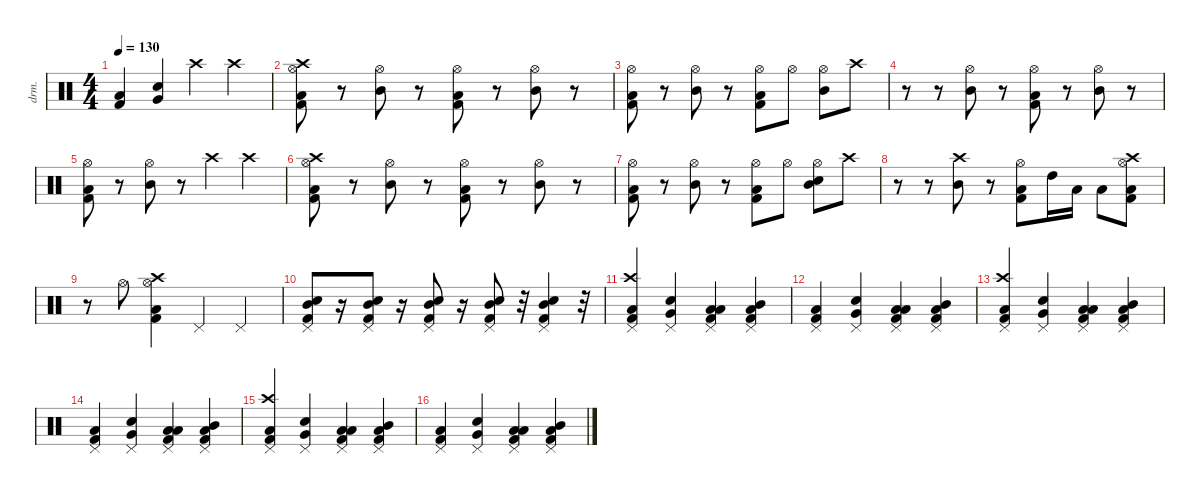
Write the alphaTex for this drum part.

\defaultSystemsLayout 4
\hideDynamics
\bracketExtendMode nobrackets
\otherSystemsTrackNameOrientation horizontal
\track ("Percussion" "drm.") {instrument percussion}
\staff {score}
\articulation defaults
\ts (4 4)
\tempo 130
\clef neutral
\ks c
("Kick (hit) 2" "Low Floor Tom (hit)").4{dy f} ("Very Low Tom (hit)" "Snare (hit) 2").4 "Crash high (hit)".4 "Crash high (hit)".4 |
("Hi-Hat (open)" "Kick (hit) 2" "Crash high (hit)" "Low Floor Tom (hit)").8 r.8 ("Hi-Hat (open)" "Mid Tom (hit)").8 r.8 ("Hi-Hat (open)" "Kick (hit) 2" "Low Floor Tom (hit)").8 r.8 ("Hi-Hat (open)" "Mid Tom (hit)").8 r.8 |
("Hi-Hat (open)" "Kick (hit) 2" "Low Floor Tom (hit)").8 r.8 ("Hi-Hat (open)" "Mid Tom (hit)").8 r.8 ("Hi-Hat (open)" "Kick (hit) 2" "Low Floor Tom (hit)").8 "Hi-Hat (open)".8 ("Hi-Hat (open)" "Mid Tom (hit)").8 "Crash high (hit)".8 |
r.8 r.8 ("Hi-Hat (open)" "Mid Tom (hit)").8 r.8 ("Hi-Hat (open)" "Kick (hit) 2" "Low Floor Tom (hit)").8 r.8 ("Hi-Hat (open)" "Mid Tom (hit)").8 r.8 |
("Hi-Hat (open)" "Kick (hit) 2" "Low Floor Tom (hit)").8 r.8 ("Hi-Hat (open)" "Mid Tom (hit)").8 r.8 "Crash high (hit)".4 "Crash high (hit)".4 |
("Hi-Hat (open)" "Kick (hit) 2" "Crash high (hit)" "Low Floor Tom (hit)").8 r.8 ("Hi-Hat (open)" "Mid Tom (hit)").8 r.8 ("Hi-Hat (open)" "Kick (hit) 2" "Low Floor Tom (hit)").8 r.8 ("Hi-Hat (open)" "Mid Tom (hit)").8 r.8 |
("Hi-Hat (open)" "Kick (hit) 2" "Low Floor Tom (hit)").8 r.8 ("Hi-Hat (open)" "Mid Tom (hit)").8 r.8 ("Hi-Hat (open)" "Kick (hit) 2" "Low Floor Tom (hit)").8 "Hi-Hat (open)".8 ("Hi-Hat (open)" "Mid Tom (hit)" "Snare (hit) 2").8 "Crash high (hit)".8 |
r.8 r.8 ("Crash high (hit)" "Mid Tom (hit)").8 r.8 ("Hi-Hat (open)" "Kick (hit) 2" "Low Floor Tom (hit)").8 "High Tom (hit)".16 "Low Tom (hit)".16 "Low Floor Tom (hit)".8 ("Hi-Hat (open)" "Kick (hit) 2" "Crash high (hit)" "Low Floor Tom (hit)").8 |
r.8 "Hi-Hat (open)".8 ("Hi-Hat (open)" "Kick (hit) 2" "Crash high (hit)" "Low Floor Tom (hit)").4 "Pedal Hi-Hat (hit)".4 "Pedal Hi-Hat (hit)".4 |
("Pedal Hi-Hat (hit)" "Mid Tom (hit)" "Kick (hit) 2" "Snare (hit) 2").8 r.16 ("Pedal Hi-Hat (hit)" "Mid Tom (hit)" "Kick (hit) 2" "Snare (hit) 2").8 r.16 ("Pedal Hi-Hat (hit)" "Mid Tom (hit)" "Kick (hit) 2" "Snare (hit) 2").8 r.16 ("Pedal Hi-Hat (hit)" "Mid Tom (hit)" "Kick (hit) 2" "Snare (hit) 2").8 r.32 ("Pedal Hi-Hat (hit)" "Mid Tom (hit)" "Kick (hit) 2" "Snare (hit) 2").4 r.32 |
("Pedal Hi-Hat (hit)" "Crash high (hit)" "Kick (hit) 2" "Low Floor Tom (hit)").4 ("Pedal Hi-Hat (hit)" "Very Low Tom (hit)" "Snare (hit) 2").4 ("Pedal Hi-Hat (hit)" "Low Floor Tom (hit)" "Kick (hit) 2" "Low Tom (hit)").4 ("Pedal Hi-Hat (hit)" "Low Tom (hit)" "Kick (hit) 2" "Mid Tom (hit)").4 |
("Pedal Hi-Hat (hit)" "Kick (hit) 2" "Low Floor Tom (hit)").4 ("Pedal Hi-Hat (hit)" "Very Low Tom (hit)" "Snare (hit) 2").4 ("Pedal Hi-Hat (hit)" "Low Floor Tom (hit)" "Kick (hit) 2" "Low Tom (hit)").4 ("Pedal Hi-Hat (hit)" "Low Tom (hit)" "Kick (hit) 2" "Mid Tom (hit)").4 |
("Pedal Hi-Hat (hit)" "Crash high (hit)" "Kick (hit) 2" "Low Floor Tom (hit)").4 ("Pedal Hi-Hat (hit)" "Very Low Tom (hit)" "Snare (hit) 2").4 ("Pedal Hi-Hat (hit)" "Low Floor Tom (hit)" "Kick (hit) 2" "Low Tom (hit)").4 ("Pedal Hi-Hat (hit)" "Low Tom (hit)" "Kick (hit) 2" "Mid Tom (hit)").4 |
("Pedal Hi-Hat (hit)" "Kick (hit) 2" "Low Floor Tom (hit)").4 ("Pedal Hi-Hat (hit)" "Very Low Tom (hit)" "Snare (hit) 2").4 ("Pedal Hi-Hat (hit)" "Low Floor Tom (hit)" "Kick (hit) 2" "Low Tom (hit)").4 ("Pedal Hi-Hat (hit)" "Low Tom (hit)" "Kick (hit) 2" "Mid Tom (hit)").4 |
("Pedal Hi-Hat (hit)" "Crash high (hit)" "Kick (hit) 2" "Low Floor Tom (hit)").4 ("Pedal Hi-Hat (hit)" "Very Low Tom (hit)" "Snare (hit) 2").4 ("Pedal Hi-Hat (hit)" "Low Floor Tom (hit)" "Kick (hit) 2" "Low Tom (hit)").4 ("Pedal Hi-Hat (hit)" "Low Tom (hit)" "Kick (hit) 2" "Mid Tom (hit)").4 |
("Pedal Hi-Hat (hit)" "Kick (hit) 2" "Low Floor Tom (hit)").4 ("Pedal Hi-Hat (hit)" "Very Low Tom (hit)" "Snare (hit) 2").4 ("Pedal Hi-Hat (hit)" "Low Floor Tom (hit)" "Kick (hit) 2" "Low Tom (hit)").4 ("Pedal Hi-Hat (hit)" "Low Tom (hit)" "Kick (hit) 2" "Mid Tom (hit)").4
